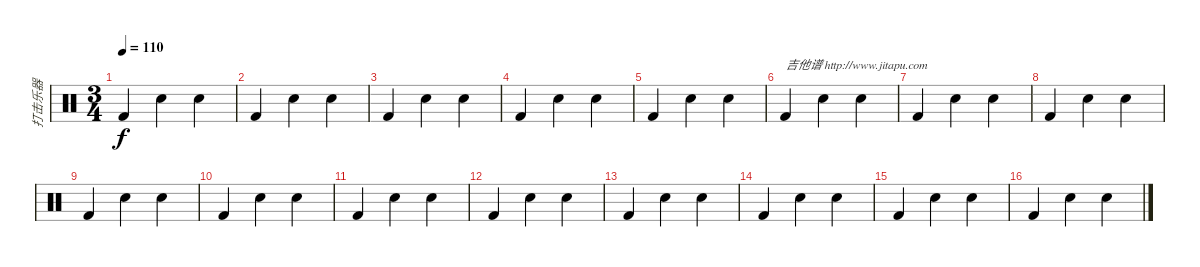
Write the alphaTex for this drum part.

\track ("打击乐器" "打击乐器") {instrument percussion}
\staff {score}
\articulation defaults
\ts (3 4)
\tempo 110
\clef neutral
\ks c "Kick (hit) 2".4{dy f} "Snare (hit) 2".4 "Snare (hit) 2".4
|
"Kick (hit) 2".4 "Snare (hit) 2".4 "Snare (hit) 2".4 |
"Kick (hit) 2".4 "Snare (hit) 2".4 "Snare (hit) 2".4 |
"Kick (hit) 2".4 "Snare (hit) 2".4 "Snare (hit) 2".4 |
"Kick (hit) 2".4 "Snare (hit) 2".4 "Snare (hit) 2".4 |
"Kick (hit) 2".4{txt "吉他谱 http://www.jitapu.com"} "Snare (hit) 2".4 "Snare (hit) 2".4 |
"Kick (hit) 2".4 "Snare (hit) 2".4 "Snare (hit) 2".4 |
"Kick (hit) 2".4 "Snare (hit) 2".4 "Snare (hit) 2".4 |
"Kick (hit) 2".4 "Snare (hit) 2".4 "Snare (hit) 2".4 |
"Kick (hit) 2".4 "Snare (hit) 2".4 "Snare (hit) 2".4 |
"Kick (hit) 2".4 "Snare (hit) 2".4 "Snare (hit) 2".4 |
"Kick (hit) 2".4 "Snare (hit) 2".4 "Snare (hit) 2".4 |
"Kick (hit) 2".4 "Snare (hit) 2".4 "Snare (hit) 2".4 |
"Kick (hit) 2".4 "Snare (hit) 2".4 "Snare (hit) 2".4 |
"Kick (hit) 2".4 "Snare (hit) 2".4 "Snare (hit) 2".4 |
"Kick (hit) 2".4 "Snare (hit) 2".4 "Snare (hit) 2".4
